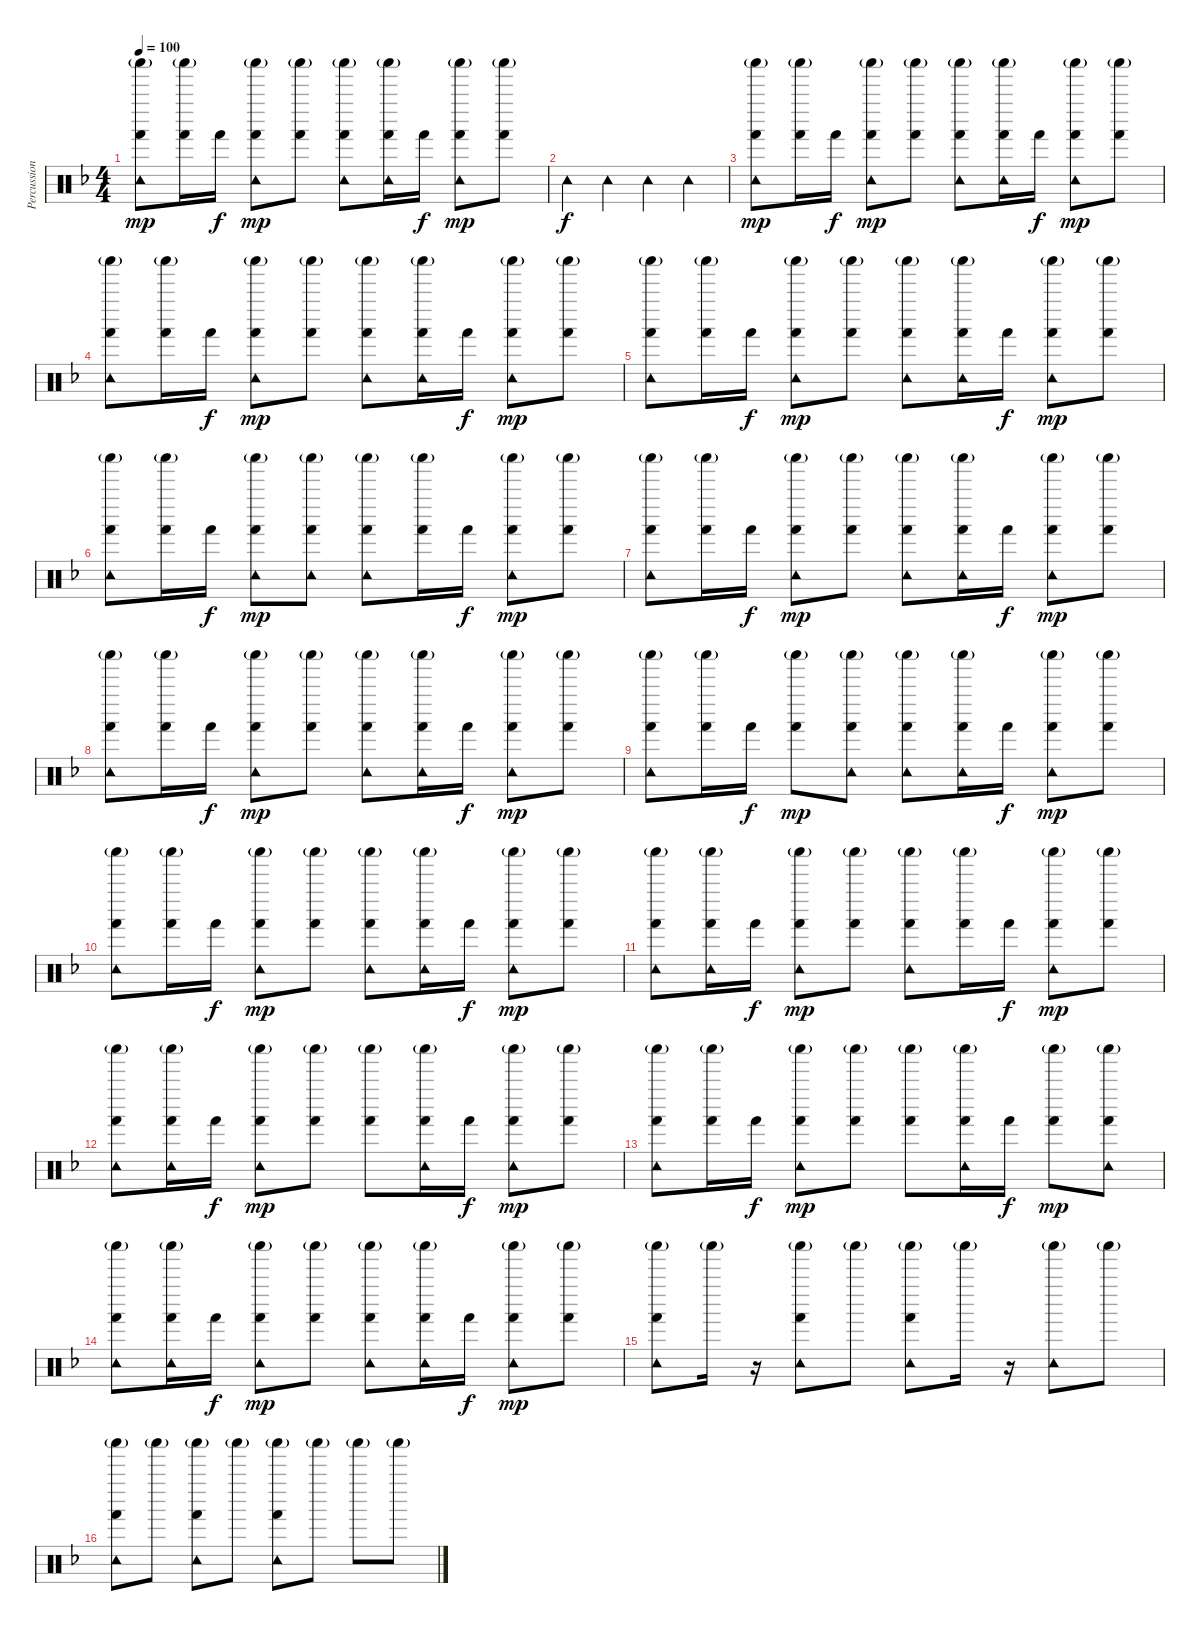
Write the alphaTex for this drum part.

\track ("Percussion" "Percussion") {instrument percussion}
\staff {score}
\articulation defaults
\ts (4 4)
\tempo 100
\clef neutral
\ks f
("Tambourine (hit)" "Shaker (hit)"{g} "Hand (hit)").8{dy mp} ("Shaker (hit)"{g} "Hand (hit)").16 "Hand (hit)".16{dy f} ("Tambourine (hit)" "Shaker (hit)"{g} "Hand (hit)").8{dy mp} ("Shaker (hit)"{g} "Hand (hit)").8 ("Tambourine (hit)" "Shaker (hit)"{g} "Hand (hit)").8 ("Tambourine (hit)" "Shaker (hit)"{g} "Hand (hit)").16 "Hand (hit)".16{dy f} ("Tambourine (hit)" "Shaker (hit)"{g} "Hand (hit)").8{dy mp} ("Shaker (hit)"{g} "Hand (hit)").8 |
"Tambourine (hit)".4{dy f} "Tambourine (hit)".4 "Tambourine (hit)".4 "Tambourine (hit)".4 |
("Tambourine (hit)" "Shaker (hit)"{g} "Hand (hit)").8{dy mp} ("Shaker (hit)"{g} "Hand (hit)").16 "Hand (hit)".16{dy f} ("Tambourine (hit)" "Shaker (hit)"{g} "Hand (hit)").8{dy mp} ("Shaker (hit)"{g} "Hand (hit)").8 ("Tambourine (hit)" "Shaker (hit)"{g} "Hand (hit)").8 ("Tambourine (hit)" "Shaker (hit)"{g} "Hand (hit)").16 "Hand (hit)".16{dy f} ("Tambourine (hit)" "Shaker (hit)"{g} "Hand (hit)").8{dy mp} ("Shaker (hit)"{g} "Hand (hit)").8 |
("Tambourine (hit)" "Shaker (hit)"{g} "Hand (hit)").8 ("Shaker (hit)"{g} "Hand (hit)").16 "Hand (hit)".16{dy f} ("Tambourine (hit)" "Shaker (hit)"{g} "Hand (hit)").8{dy mp} ("Shaker (hit)"{g} "Hand (hit)").8 ("Tambourine (hit)" "Shaker (hit)"{g} "Hand (hit)").8 ("Tambourine (hit)" "Shaker (hit)"{g} "Hand (hit)").16 "Hand (hit)".16{dy f} ("Tambourine (hit)" "Shaker (hit)"{g} "Hand (hit)").8{dy mp} ("Shaker (hit)"{g} "Hand (hit)").8 |
("Tambourine (hit)" "Shaker (hit)"{g} "Hand (hit)").8 ("Shaker (hit)"{g} "Hand (hit)").16 "Hand (hit)".16{dy f} ("Tambourine (hit)" "Shaker (hit)"{g} "Hand (hit)").8{dy mp} ("Shaker (hit)"{g} "Hand (hit)").8 ("Tambourine (hit)" "Shaker (hit)"{g} "Hand (hit)").8 ("Tambourine (hit)" "Shaker (hit)"{g} "Hand (hit)").16 "Hand (hit)".16{dy f} ("Tambourine (hit)" "Shaker (hit)"{g} "Hand (hit)").8{dy mp} ("Shaker (hit)"{g} "Hand (hit)").8 |
("Tambourine (hit)" "Shaker (hit)"{g} "Hand (hit)").8 ("Shaker (hit)"{g} "Hand (hit)").16 "Hand (hit)".16{dy f} ("Tambourine (hit)" "Shaker (hit)"{g} "Hand (hit)").8{dy mp} ("Tambourine (hit)" "Shaker (hit)"{g} "Hand (hit)").8 ("Tambourine (hit)" "Shaker (hit)"{g} "Hand (hit)").8 ("Shaker (hit)"{g} "Hand (hit)").16 "Hand (hit)".16{dy f} ("Tambourine (hit)" "Shaker (hit)"{g} "Hand (hit)").8{dy mp} ("Shaker (hit)"{g} "Hand (hit)").8 |
("Tambourine (hit)" "Shaker (hit)"{g} "Hand (hit)").8 ("Shaker (hit)"{g} "Hand (hit)").16 "Hand (hit)".16{dy f} ("Tambourine (hit)" "Shaker (hit)"{g} "Hand (hit)").8{dy mp} ("Shaker (hit)"{g} "Hand (hit)").8 ("Tambourine (hit)" "Shaker (hit)"{g} "Hand (hit)").8 ("Tambourine (hit)" "Shaker (hit)"{g} "Hand (hit)").16 "Hand (hit)".16{dy f} ("Tambourine (hit)" "Shaker (hit)"{g} "Hand (hit)").8{dy mp} ("Shaker (hit)"{g} "Hand (hit)").8 |
("Tambourine (hit)" "Shaker (hit)"{g} "Hand (hit)").8 ("Shaker (hit)"{g} "Hand (hit)").16 "Hand (hit)".16{dy f} ("Tambourine (hit)" "Shaker (hit)"{g} "Hand (hit)").8{dy mp} ("Shaker (hit)"{g} "Hand (hit)").8 ("Tambourine (hit)" "Shaker (hit)"{g} "Hand (hit)").8 ("Tambourine (hit)" "Shaker (hit)"{g} "Hand (hit)").16 "Hand (hit)".16{dy f} ("Tambourine (hit)" "Shaker (hit)"{g} "Hand (hit)").8{dy mp} ("Shaker (hit)"{g} "Hand (hit)").8 |
("Tambourine (hit)" "Shaker (hit)"{g} "Hand (hit)").8 ("Shaker (hit)"{g} "Hand (hit)").16 "Hand (hit)".16{dy f} ("Shaker (hit)"{g} "Hand (hit)").8{dy mp} ("Tambourine (hit)" "Shaker (hit)"{g} "Hand (hit)").8 ("Tambourine (hit)" "Shaker (hit)"{g} "Hand (hit)").8 ("Tambourine (hit)" "Shaker (hit)"{g} "Hand (hit)").16 "Hand (hit)".16{dy f} ("Tambourine (hit)" "Shaker (hit)"{g} "Hand (hit)").8{dy mp} ("Shaker (hit)"{g} "Hand (hit)").8 |
("Tambourine (hit)" "Shaker (hit)"{g} "Hand (hit)").8 ("Shaker (hit)"{g} "Hand (hit)").16 "Hand (hit)".16{dy f} ("Tambourine (hit)" "Shaker (hit)"{g} "Hand (hit)").8{dy mp} ("Shaker (hit)"{g} "Hand (hit)").8 ("Tambourine (hit)" "Shaker (hit)"{g} "Hand (hit)").8 ("Tambourine (hit)" "Shaker (hit)"{g} "Hand (hit)").16 "Hand (hit)".16{dy f} ("Tambourine (hit)" "Shaker (hit)"{g} "Hand (hit)").8{dy mp} ("Shaker (hit)"{g} "Hand (hit)").8 |
("Tambourine (hit)" "Shaker (hit)"{g} "Hand (hit)").8 ("Tambourine (hit)" "Shaker (hit)"{g} "Hand (hit)").16 "Hand (hit)".16{dy f} ("Tambourine (hit)" "Shaker (hit)"{g} "Hand (hit)").8{dy mp} ("Shaker (hit)"{g} "Hand (hit)").8 ("Tambourine (hit)" "Shaker (hit)"{g} "Hand (hit)").8 ("Shaker (hit)"{g} "Hand (hit)").16 "Hand (hit)".16{dy f} ("Tambourine (hit)" "Shaker (hit)"{g} "Hand (hit)").8{dy mp} ("Shaker (hit)"{g} "Hand (hit)").8 |
("Tambourine (hit)" "Shaker (hit)"{g} "Hand (hit)").8 ("Tambourine (hit)" "Shaker (hit)"{g} "Hand (hit)").16 "Hand (hit)".16{dy f} ("Tambourine (hit)" "Shaker (hit)"{g} "Hand (hit)").8{dy mp} ("Shaker (hit)"{g} "Hand (hit)").8 ("Shaker (hit)"{g} "Hand (hit)").8 ("Tambourine (hit)" "Shaker (hit)"{g} "Hand (hit)").16 "Hand (hit)".16{dy f} ("Tambourine (hit)" "Shaker (hit)"{g} "Hand (hit)").8{dy mp} ("Shaker (hit)"{g} "Hand (hit)").8 |
("Tambourine (hit)" "Shaker (hit)"{g} "Hand (hit)").8 ("Shaker (hit)"{g} "Hand (hit)").16 "Hand (hit)".16{dy f} ("Tambourine (hit)" "Shaker (hit)"{g} "Hand (hit)").8{dy mp} ("Shaker (hit)"{g} "Hand (hit)").8 ("Shaker (hit)"{g} "Hand (hit)").8 ("Tambourine (hit)" "Shaker (hit)"{g} "Hand (hit)").16 "Hand (hit)".16{dy f} ("Shaker (hit)"{g} "Hand (hit)").8{dy mp} ("Tambourine (hit)" "Shaker (hit)"{g} "Hand (hit)").8 |
("Tambourine (hit)" "Shaker (hit)"{g} "Hand (hit)").8 ("Tambourine (hit)" "Shaker (hit)"{g} "Hand (hit)").16 "Hand (hit)".16{dy f} ("Tambourine (hit)" "Shaker (hit)"{g} "Hand (hit)").8{dy mp} ("Shaker (hit)"{g} "Hand (hit)").8 ("Tambourine (hit)" "Shaker (hit)"{g} "Hand (hit)").8 ("Tambourine (hit)" "Shaker (hit)"{g} "Hand (hit)").16 "Hand (hit)".16{dy f} ("Tambourine (hit)" "Shaker (hit)"{g} "Hand (hit)").8{dy mp} ("Shaker (hit)"{g} "Hand (hit)").8 |
("Tambourine (hit)" "Shaker (hit)"{g} "Hand (hit)").8 "Shaker (hit)"{g}.16 r.16 ("Tambourine (hit)" "Shaker (hit)"{g} "Hand (hit)").8 "Shaker (hit)"{g}.8 ("Tambourine (hit)" "Shaker (hit)"{g} "Hand (hit)").8 "Shaker (hit)"{g}.16 r.16 ("Tambourine (hit)" "Shaker (hit)"{g}).8 "Shaker (hit)"{g}.8 |
("Tambourine (hit)" "Shaker (hit)"{g} "Hand (hit)").8 "Shaker (hit)"{g}.8 ("Tambourine (hit)" "Shaker (hit)"{g} "Hand (hit)").8 "Shaker (hit)"{g}.8 ("Tambourine (hit)" "Shaker (hit)"{g} "Hand (hit)").8 "Shaker (hit)"{g}.8 "Shaker (hit)"{g}.8 "Shaker (hit)"{g}.8
